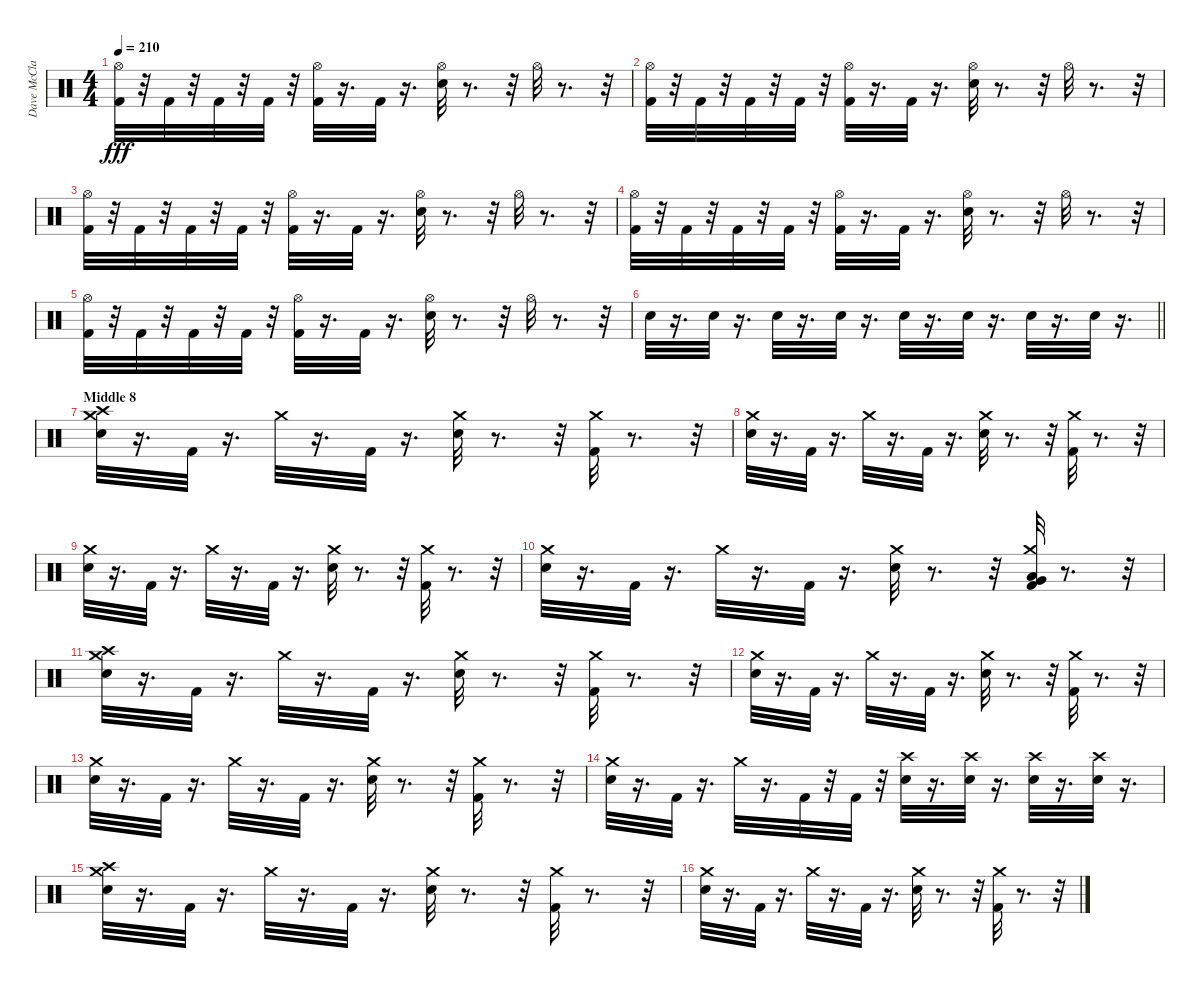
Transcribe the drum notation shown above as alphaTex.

\track ("Dave McClain" "Dave McCla") {instrument percussion}
\staff {score}
\articulation defaults
\ts (4 4)
\tempo 210
\clef neutral
\ks c
("Kick (hit) 2" "Hi-Hat (open)").32{dy fff} r.32 "Kick (hit) 2".32 r.32 "Kick (hit) 2".32 r.32 "Kick (hit) 2".32 r.32 ("Kick (hit) 2" "Hi-Hat (open)").32 r.16{d} "Kick (hit) 2".32 r.16{d} ("Snare (hit) 2" "Hi-Hat (open)").32 r.8{d} r.32 "Hi-Hat (open)".32 r.8{d} r.32 |
("Kick (hit) 2" "Hi-Hat (open)").32 r.32 "Kick (hit) 2".32 r.32 "Kick (hit) 2".32 r.32 "Kick (hit) 2".32 r.32 ("Kick (hit) 2" "Hi-Hat (open)").32 r.16{d} "Kick (hit) 2".32 r.16{d} ("Snare (hit) 2" "Hi-Hat (open)").32 r.8{d} r.32 "Hi-Hat (open)".32 r.8{d} r.32 |
("Hi-Hat (open)" "Kick (hit) 2").32 r.32 "Kick (hit) 2".32 r.32 "Kick (hit) 2".32 r.32 "Kick (hit) 2".32 r.32 ("Hi-Hat (open)" "Kick (hit) 2").32 r.16{d} "Kick (hit) 2".32 r.16{d} ("Hi-Hat (open)" "Snare (hit) 2").32 r.8{d} r.32 "Hi-Hat (open)".32 r.8{d} r.32 |
("Kick (hit) 2" "Hi-Hat (open)").32 r.32 "Kick (hit) 2".32 r.32 "Kick (hit) 2".32 r.32 "Kick (hit) 2".32 r.32 ("Kick (hit) 2" "Hi-Hat (open)").32 r.16{d} "Kick (hit) 2".32 r.16{d} ("Snare (hit) 2" "Hi-Hat (open)").32 r.8{d} r.32 "Hi-Hat (open)".32 r.8{d} r.32 |
("Kick (hit) 2" "Hi-Hat (open)").32 r.32 "Kick (hit) 2".32 r.32 "Kick (hit) 2".32 r.32 "Kick (hit) 2".32 r.32 ("Kick (hit) 2" "Hi-Hat (open)").32 r.16{d} "Kick (hit) 2".32 r.16{d} ("Snare (hit) 2" "Hi-Hat (open)").32 r.8{d} r.32 "Hi-Hat (open)".32 r.8{d} r.32 |
\barLineRight lightlight "Snare (hit) 2".32
r.16{d} "Snare (hit) 2".32 r.16{d} "Snare (hit) 2".32 r.16{d} "Snare (hit) 2".32 r.16{d} "Snare (hit) 2".32 r.16{d} "Snare (hit) 2".32 r.16{d} "Snare (hit) 2".32 r.16{d} "Snare (hit) 2".32 r.16{d} |
\section ("" "Middle 8")
("Snare (hit) 2" "Crash medium (hit)" "Crash high (hit)").32 r.16{d} "Kick (hit) 2".32 r.16{d} "Crash medium (hit)".32 r.16{d} "Kick (hit) 2".32 r.16{d} ("Crash medium (hit)" "Snare (hit) 2").32 r.8{d} r.32 ("Kick (hit) 2" "Crash medium (hit)").32 r.8{d} r.32 |
("Snare (hit) 2" "Crash medium (hit)").32 r.16{d} "Kick (hit) 2".32 r.16{d} "Crash medium (hit)".32 r.16{d} "Kick (hit) 2".32 r.16{d} ("Snare (hit) 2" "Crash medium (hit)").32 r.8{d} r.32 ("Kick (hit) 2" "Crash medium (hit)").32 r.8{d} r.32 |
("Snare (hit) 2" "Crash medium (hit)").32 r.16{d} "Kick (hit) 2".32 r.16{d} "Crash medium (hit)".32 r.16{d} "Kick (hit) 2".32 r.16{d} ("Snare (hit) 2" "Crash medium (hit)").32 r.8{d} r.32 ("Kick (hit) 2" "Crash medium (hit)").32 r.8{d} r.32 |
("Snare (hit) 2" "Crash medium (hit)").32 r.16{d} "Kick (hit) 2".32 r.16{d} "Crash medium (hit)".32 r.16{d} "Kick (hit) 2".32 r.16{d} ("Snare (hit) 2" "Crash medium (hit)").32 r.8{d} r.32 ("Very Low Tom (hit)" "Low Floor Tom (hit)" "Kick (hit) 2" "Crash medium (hit)").32 r.8{d} r.32 |
("Snare (hit) 2" "Crash medium (hit)" "Crash high (hit)").32 r.16{d} "Kick (hit) 2".32 r.16{d} "Crash medium (hit)".32 r.16{d} "Kick (hit) 2".32 r.16{d} ("Crash medium (hit)" "Snare (hit) 2").32 r.8{d} r.32 ("Kick (hit) 2" "Crash medium (hit)").32 r.8{d} r.32 |
("Snare (hit) 2" "Crash medium (hit)").32 r.16{d} "Kick (hit) 2".32 r.16{d} "Crash medium (hit)".32 r.16{d} "Kick (hit) 2".32 r.16{d} ("Snare (hit) 2" "Crash medium (hit)").32 r.8{d} r.32 ("Kick (hit) 2" "Crash medium (hit)").32 r.8{d} r.32 |
("Snare (hit) 2" "Crash medium (hit)").32 r.16{d} "Kick (hit) 2".32 r.16{d} "Crash medium (hit)".32 r.16{d} "Kick (hit) 2".32 r.16{d} ("Snare (hit) 2" "Crash medium (hit)").32 r.8{d} r.32 ("Kick (hit) 2" "Crash medium (hit)").32 r.8{d} r.32 |
("Snare (hit) 2" "Crash medium (hit)").32 r.16{d} "Kick (hit) 2".32 r.16{d} "Crash medium (hit)".32 r.16{d} "Kick (hit) 2".32 r.32 "Kick (hit) 2".32 r.32 ("Crash high (hit)" "Snare (hit) 2").32 r.16{d} ("Crash high (hit)" "Snare (hit) 2").32 r.16{d} ("Crash high (hit)" "Snare (hit) 2").32 r.16{d} ("Snare (hit) 2" "Crash high (hit)").32 r.16{d} |
("Snare (hit) 2" "Crash medium (hit)" "Crash high (hit)").32 r.16{d} "Kick (hit) 2".32 r.16{d} "Crash medium (hit)".32 r.16{d} "Kick (hit) 2".32 r.16{d} ("Crash medium (hit)" "Snare (hit) 2").32 r.8{d} r.32 ("Kick (hit) 2" "Crash medium (hit)").32 r.8{d} r.32 |
("Snare (hit) 2" "Crash medium (hit)").32 r.16{d} "Kick (hit) 2".32 r.16{d} "Crash medium (hit)".32 r.16{d} "Kick (hit) 2".32 r.16{d} ("Snare (hit) 2" "Crash medium (hit)").32 r.8{d} r.32 ("Kick (hit) 2" "Crash medium (hit)").32 r.8{d} r.32
